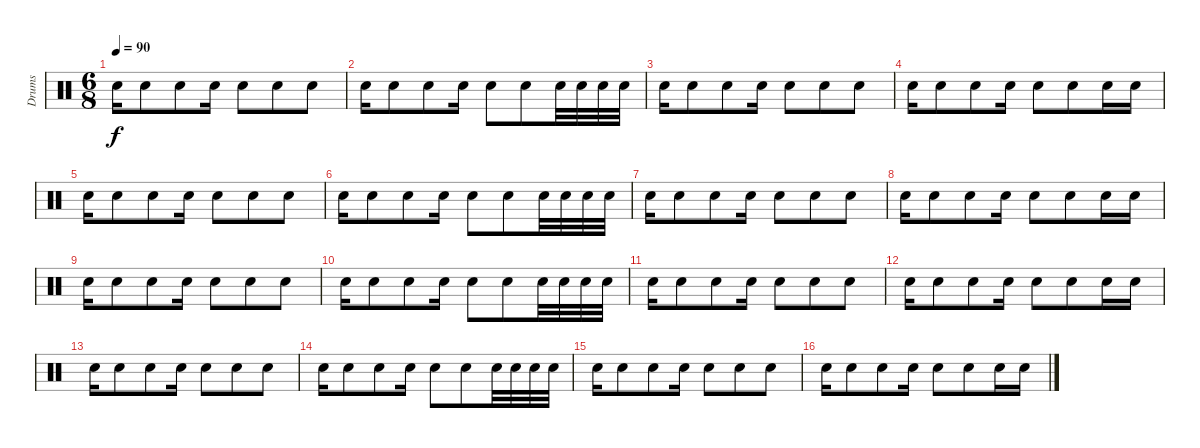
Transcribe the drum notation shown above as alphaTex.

\track ("Drums" "Drums") {instrument percussion}
\staff {score}
\articulation defaults
\ts (6 8)
\section ("" "")
\tempo 90
\clef neutral
\ks c "Electric Snare (hit)".16{dy f} "Electric Snare (hit)".8 "Electric Snare (hit)".8 "Electric Snare (hit)".16 "Electric Snare (hit)".8 "Electric Snare (hit)".8 "Electric Snare (hit)".8
|
"Electric Snare (hit)".16 "Electric Snare (hit)".8 "Electric Snare (hit)".8 "Electric Snare (hit)".16 "Electric Snare (hit)".8 "Electric Snare (hit)".8 "Electric Snare (hit)".32 "Electric Snare (hit)".32 "Electric Snare (hit)".32 "Electric Snare (hit)".32 |
"Electric Snare (hit)".16 "Electric Snare (hit)".8 "Electric Snare (hit)".8 "Electric Snare (hit)".16 "Electric Snare (hit)".8 "Electric Snare (hit)".8 "Electric Snare (hit)".8 |
"Electric Snare (hit)".16 "Electric Snare (hit)".8 "Electric Snare (hit)".8 "Electric Snare (hit)".16 "Electric Snare (hit)".8 "Electric Snare (hit)".8 "Electric Snare (hit)".16 "Electric Snare (hit)".16 |
"Electric Snare (hit)".16 "Electric Snare (hit)".8 "Electric Snare (hit)".8 "Electric Snare (hit)".16 "Electric Snare (hit)".8 "Electric Snare (hit)".8 "Electric Snare (hit)".8 |
"Electric Snare (hit)".16 "Electric Snare (hit)".8 "Electric Snare (hit)".8 "Electric Snare (hit)".16 "Electric Snare (hit)".8 "Electric Snare (hit)".8 "Electric Snare (hit)".32 "Electric Snare (hit)".32 "Electric Snare (hit)".32 "Electric Snare (hit)".32 |
"Electric Snare (hit)".16 "Electric Snare (hit)".8 "Electric Snare (hit)".8 "Electric Snare (hit)".16 "Electric Snare (hit)".8 "Electric Snare (hit)".8 "Electric Snare (hit)".8 |
"Electric Snare (hit)".16 "Electric Snare (hit)".8 "Electric Snare (hit)".8 "Electric Snare (hit)".16 "Electric Snare (hit)".8 "Electric Snare (hit)".8 "Electric Snare (hit)".16 "Electric Snare (hit)".16 |
"Electric Snare (hit)".16 "Electric Snare (hit)".8 "Electric Snare (hit)".8 "Electric Snare (hit)".16 "Electric Snare (hit)".8 "Electric Snare (hit)".8 "Electric Snare (hit)".8 |
"Electric Snare (hit)".16 "Electric Snare (hit)".8 "Electric Snare (hit)".8 "Electric Snare (hit)".16 "Electric Snare (hit)".8 "Electric Snare (hit)".8 "Electric Snare (hit)".32 "Electric Snare (hit)".32 "Electric Snare (hit)".32 "Electric Snare (hit)".32 |
"Electric Snare (hit)".16 "Electric Snare (hit)".8 "Electric Snare (hit)".8 "Electric Snare (hit)".16 "Electric Snare (hit)".8 "Electric Snare (hit)".8 "Electric Snare (hit)".8 |
"Electric Snare (hit)".16 "Electric Snare (hit)".8 "Electric Snare (hit)".8 "Electric Snare (hit)".16 "Electric Snare (hit)".8 "Electric Snare (hit)".8 "Electric Snare (hit)".16 "Electric Snare (hit)".16 |
"Electric Snare (hit)".16 "Electric Snare (hit)".8 "Electric Snare (hit)".8 "Electric Snare (hit)".16 "Electric Snare (hit)".8 "Electric Snare (hit)".8 "Electric Snare (hit)".8 |
"Electric Snare (hit)".16 "Electric Snare (hit)".8 "Electric Snare (hit)".8 "Electric Snare (hit)".16 "Electric Snare (hit)".8 "Electric Snare (hit)".8 "Electric Snare (hit)".32 "Electric Snare (hit)".32 "Electric Snare (hit)".32 "Electric Snare (hit)".32 |
"Electric Snare (hit)".16 "Electric Snare (hit)".8 "Electric Snare (hit)".8 "Electric Snare (hit)".16 "Electric Snare (hit)".8 "Electric Snare (hit)".8 "Electric Snare (hit)".8 |
"Electric Snare (hit)".16 "Electric Snare (hit)".8 "Electric Snare (hit)".8 "Electric Snare (hit)".16 "Electric Snare (hit)".8 "Electric Snare (hit)".8 "Electric Snare (hit)".16 "Electric Snare (hit)".16
